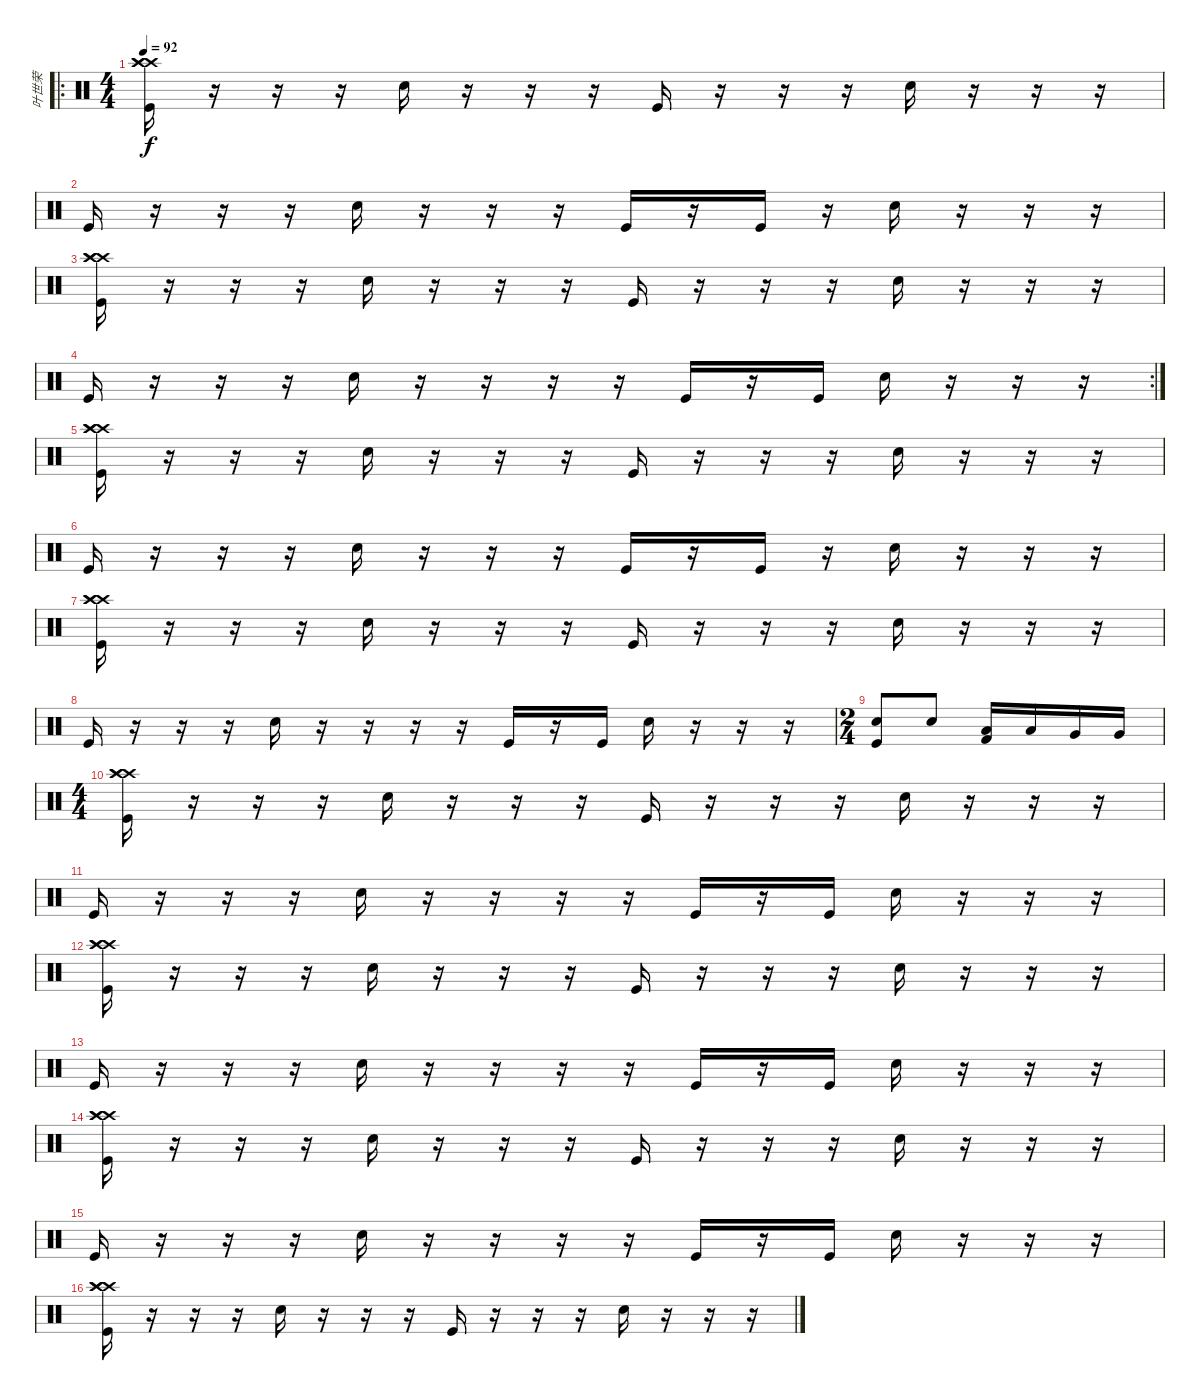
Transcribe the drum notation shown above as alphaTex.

\track ("叶世荣" "叶世荣") {instrument percussion}
\staff {score}
\articulation defaults
\ro
\ts (4 4)
\tempo 92
\clef neutral
\ks c
("Kick (hit)" "Crash high (hit)" "Crash high (hit)" "Crash high (hit)").16{dy f} r.16 r.16 r.16 "Electric Snare (hit)".16 r.16 r.16 r.16 "Kick (hit)".16 r.16 r.16 r.16 "Electric Snare (hit)".16 r.16 r.16 r.16 |
"Kick (hit)".16 r.16 r.16 r.16 "Electric Snare (hit)".16 r.16 r.16 r.16 "Kick (hit)".16 r.16 "Kick (hit)".16 r.16 "Electric Snare (hit)".16 r.16 r.16 r.16 |
("Kick (hit)" "Crash high (hit)" "Crash high (hit)" "Crash high (hit)").16 r.16 r.16 r.16 "Electric Snare (hit)".16 r.16 r.16 r.16 "Kick (hit)".16 r.16 r.16 r.16 "Electric Snare (hit)".16 r.16 r.16 r.16 |
\rc 2 "Kick (hit)".16
r.16 r.16 r.16 "Electric Snare (hit)".16 r.16 r.16 r.16 r.16 "Kick (hit)".16 r.16 "Kick (hit)".16 "Electric Snare (hit)".16 r.16 r.16 r.16 |
("Kick (hit)" "Crash high (hit)" "Crash high (hit)" "Crash high (hit)").16 r.16 r.16 r.16 "Electric Snare (hit)".16 r.16 r.16 r.16 "Kick (hit)".16 r.16 r.16 r.16 "Electric Snare (hit)".16 r.16 r.16 r.16 |
"Kick (hit)".16 r.16 r.16 r.16 "Electric Snare (hit)".16 r.16 r.16 r.16 "Kick (hit)".16 r.16 "Kick (hit)".16 r.16 "Electric Snare (hit)".16 r.16 r.16 r.16 |
("Kick (hit)" "Crash high (hit)" "Crash high (hit)" "Crash high (hit)").16 r.16 r.16 r.16 "Electric Snare (hit)".16 r.16 r.16 r.16 "Kick (hit)".16 r.16 r.16 r.16 "Electric Snare (hit)".16 r.16 r.16 r.16 |
"Kick (hit)".16 r.16 r.16 r.16 "Electric Snare (hit)".16 r.16 r.16 r.16 r.16 "Kick (hit)".16 r.16 "Kick (hit)".16 "Electric Snare (hit)".16 r.16 r.16 r.16 |
\ts (2 4)
("Electric Snare (hit)" "Kick (hit)").8 "Electric Snare (hit)".8 ("Low Tom (hit)" "Kick (hit) 2").16 "Low Tom (hit)".16 "Very Low Tom (hit)".16 "Very Low Tom (hit)".16 |
\ts (4 4)
("Kick (hit)" "Crash high (hit)" "Crash high (hit)" "Crash high (hit)").16 r.16 r.16 r.16 "Electric Snare (hit)".16 r.16 r.16 r.16 "Kick (hit)".16 r.16 r.16 r.16 "Electric Snare (hit)".16 r.16 r.16 r.16 |
"Kick (hit)".16 r.16 r.16 r.16 "Electric Snare (hit)".16 r.16 r.16 r.16 r.16 "Kick (hit)".16 r.16 "Kick (hit)".16 "Electric Snare (hit)".16 r.16 r.16 r.16 |
("Kick (hit)" "Crash high (hit)" "Crash high (hit)" "Crash high (hit)").16 r.16 r.16 r.16 "Electric Snare (hit)".16 r.16 r.16 r.16 "Kick (hit)".16 r.16 r.16 r.16 "Electric Snare (hit)".16 r.16 r.16 r.16 |
"Kick (hit)".16 r.16 r.16 r.16 "Electric Snare (hit)".16 r.16 r.16 r.16 r.16 "Kick (hit)".16 r.16 "Kick (hit)".16 "Electric Snare (hit)".16 r.16 r.16 r.16 |
("Kick (hit)" "Crash high (hit)" "Crash high (hit)" "Crash high (hit)").16 r.16 r.16 r.16 "Electric Snare (hit)".16 r.16 r.16 r.16 "Kick (hit)".16 r.16 r.16 r.16 "Electric Snare (hit)".16 r.16 r.16 r.16 |
"Kick (hit)".16 r.16 r.16 r.16 "Electric Snare (hit)".16 r.16 r.16 r.16 r.16 "Kick (hit)".16 r.16 "Kick (hit)".16 "Electric Snare (hit)".16 r.16 r.16 r.16 |
("Kick (hit)" "Crash high (hit)" "Crash high (hit)" "Crash high (hit)").16 r.16 r.16 r.16 "Electric Snare (hit)".16 r.16 r.16 r.16 "Kick (hit)".16 r.16 r.16 r.16 "Electric Snare (hit)".16 r.16 r.16 r.16
